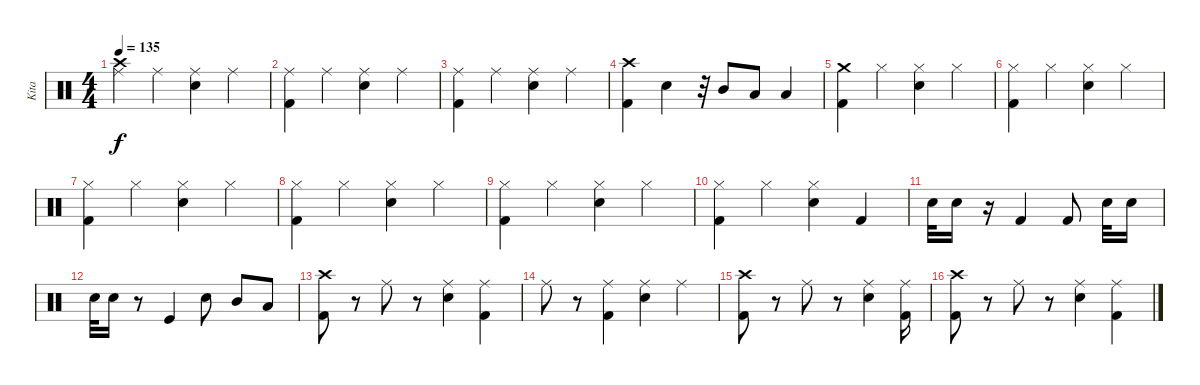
\track ("Kita" "Kita") {instrument percussion}
\staff {score}
\articulation defaults
\ts (4 4)
\tempo 135
\clef neutral
\ks c
("Crash high (hit)" "Ride (middle)").4{dy f} "Ride (middle)".4 ("Snare (hit) 2" "Ride (middle)").4 "Ride (middle)".4 |
("Kick (hit) 2" "Ride (middle)").4 "Ride (middle)".4 ("Snare (hit) 2" "Ride (middle)").4 "Ride (middle)".4 |
("Kick (hit) 2" "Ride (middle)").4 "Ride (middle)".4 ("Snare (hit) 2" "Ride (middle)").4 "Ride (middle)".4 |
("Crash high (hit)" "Kick (hit) 2").4 "Snare (hit) 2".4 r.32 "Mid Tom (hit)".8 "Low Tom (hit)".8 "Low Floor Tom (hit)".4 |
("Crash medium (hit)" "Kick (hit) 2").4 "Hi-Hat (closed)".4 ("Hi-Hat (closed)" "Snare (hit) 2").4 "Hi-Hat (closed)".4 |
("Hi-Hat (closed)" "Kick (hit) 2").4 "Hi-Hat (closed)".4 ("Hi-Hat (closed)" "Snare (hit) 2").4 "Hi-Hat (closed)".4 |
("Hi-Hat (closed)" "Kick (hit) 2").4 "Hi-Hat (closed)".4 ("Hi-Hat (closed)" "Snare (hit) 2").4 "Hi-Hat (closed)".4 |
("Hi-Hat (closed)" "Kick (hit) 2").4 "Hi-Hat (closed)".4 ("Hi-Hat (closed)" "Snare (hit) 2").4 "Hi-Hat (closed)".4 |
("Hi-Hat (closed)" "Kick (hit) 2").4 "Hi-Hat (closed)".4 ("Hi-Hat (closed)" "Snare (hit) 2").4 "Hi-Hat (closed)".4 |
("Hi-Hat (closed)" "Kick (hit) 2").4 "Hi-Hat (closed)".4 ("Hi-Hat (closed)" "Snare (hit) 2").4 "Kick (hit) 2".4 |
"Snare (hit) 2".32 "Snare (hit) 2".16 r.16 "Kick (hit) 2".4 "Kick (hit) 2".8 "Snare (hit) 2".32 "Snare (hit) 2".16 |
"Snare (hit) 2".32 "Snare (hit) 2".16 r.8 "Kick (hit)".4 "Snare (hit) 2".8 "Mid Tom (hit)".8 "Low Tom (hit)".8 |
("Crash high (hit)" "Kick (hit) 2").8 r.8 "Ride (middle)".8 r.8 ("Ride (middle)" "Snare (hit) 2").4 ("Ride (middle)" "Kick (hit) 2").4 |
"Ride (middle)".8 r.8 ("Ride (middle)" "Kick (hit) 2").4 ("Ride (middle)" "Snare (hit) 2").4 "Ride (middle)".4 |
("Crash high (hit)" "Kick (hit) 2").8 r.8 "Ride (middle)".8 r.8 ("Ride (middle)" "Snare (hit) 2").4 ("Ride (middle)" "Kick (hit) 2").16 |
("Crash high (hit)" "Kick (hit) 2").8 r.8 "Ride (middle)".8 r.8 ("Ride (middle)" "Snare (hit) 2").4 ("Ride (middle)" "Kick (hit) 2").4
